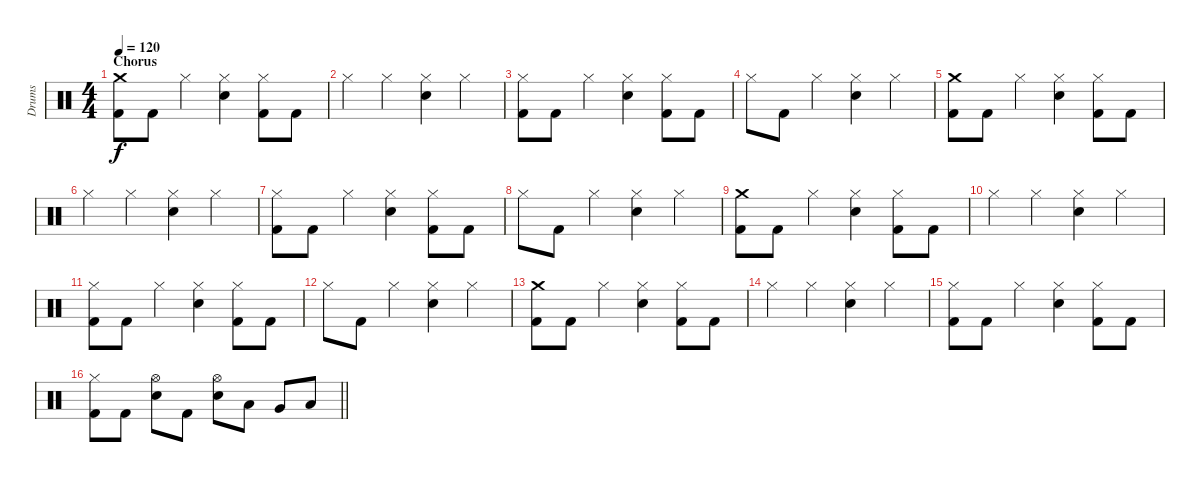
\track ("Drums" "Drums") {instrument percussion}
\staff {score}
\articulation defaults
\ts (4 4)
\section ("" "Chorus")
\tempo 120
\clef neutral
\ks c
("Crash medium (hit)" "Kick (hit) 2").8{dy f} "Kick (hit) 2".8 "Hi-Hat (closed)".4 ("Hi-Hat (closed)" "Snare (hit) 2").4 ("Hi-Hat (closed)" "Kick (hit) 2").8 "Kick (hit) 2".8 |
"Hi-Hat (closed)".4 "Hi-Hat (closed)".4 ("Hi-Hat (closed)" "Snare (hit) 2").4 "Hi-Hat (closed)".4 |
("Hi-Hat (closed)" "Kick (hit) 2").8 "Kick (hit) 2".8 "Hi-Hat (closed)".4 ("Hi-Hat (closed)" "Snare (hit) 2").4 ("Hi-Hat (closed)" "Kick (hit) 2").8 "Kick (hit) 2".8 |
"Hi-Hat (closed)".8 "Kick (hit) 2".8 "Hi-Hat (closed)".4 ("Hi-Hat (closed)" "Snare (hit) 2").4 "Hi-Hat (closed)".4 |
("Crash medium (hit)" "Kick (hit) 2").8 "Kick (hit) 2".8 "Hi-Hat (closed)".4 ("Hi-Hat (closed)" "Snare (hit) 2").4 ("Hi-Hat (closed)" "Kick (hit) 2").8 "Kick (hit) 2".8 |
"Hi-Hat (closed)".4 "Hi-Hat (closed)".4 ("Hi-Hat (closed)" "Snare (hit) 2").4 "Hi-Hat (closed)".4 |
("Hi-Hat (closed)" "Kick (hit) 2").8 "Kick (hit) 2".8 "Hi-Hat (closed)".4 ("Hi-Hat (closed)" "Snare (hit) 2").4 ("Hi-Hat (closed)" "Kick (hit) 2").8 "Kick (hit) 2".8 |
"Hi-Hat (closed)".8 "Kick (hit) 2".8 "Hi-Hat (closed)".4 ("Hi-Hat (closed)" "Snare (hit) 2").4 "Hi-Hat (closed)".4 |
("Crash medium (hit)" "Kick (hit) 2").8 "Kick (hit) 2".8 "Hi-Hat (closed)".4 ("Hi-Hat (closed)" "Snare (hit) 2").4 ("Hi-Hat (closed)" "Kick (hit) 2").8 "Kick (hit) 2".8 |
"Hi-Hat (closed)".4 "Hi-Hat (closed)".4 ("Hi-Hat (closed)" "Snare (hit) 2").4 "Hi-Hat (closed)".4 |
("Hi-Hat (closed)" "Kick (hit) 2").8 "Kick (hit) 2".8 "Hi-Hat (closed)".4 ("Hi-Hat (closed)" "Snare (hit) 2").4 ("Hi-Hat (closed)" "Kick (hit) 2").8 "Kick (hit) 2".8 |
"Hi-Hat (closed)".8 "Kick (hit) 2".8 "Hi-Hat (closed)".4 ("Hi-Hat (closed)" "Snare (hit) 2").4 "Hi-Hat (closed)".4 |
("Crash medium (hit)" "Kick (hit) 2").8 "Kick (hit) 2".8 "Hi-Hat (closed)".4 ("Hi-Hat (closed)" "Snare (hit) 2").4 ("Hi-Hat (closed)" "Kick (hit) 2").8 "Kick (hit) 2".8 |
"Hi-Hat (closed)".4 "Hi-Hat (closed)".4 ("Hi-Hat (closed)" "Snare (hit) 2").4 "Hi-Hat (closed)".4 |
("Hi-Hat (closed)" "Kick (hit) 2").8 "Kick (hit) 2".8 "Hi-Hat (closed)".4 ("Hi-Hat (closed)" "Snare (hit) 2").4 ("Hi-Hat (closed)" "Kick (hit) 2").8 "Kick (hit) 2".8 |
\barLineRight lightlight
("Hi-Hat (closed)" "Kick (hit) 2").8 "Kick (hit) 2".8 ("Hi-Hat (open)" "Snare (hit) 2").8 "Kick (hit) 2".8 ("Hi-Hat (open)" "Snare (hit) 2").8 "Low Tom (hit)".8 "Very Low Tom (hit)".8 "Low Floor Tom (hit)".8
